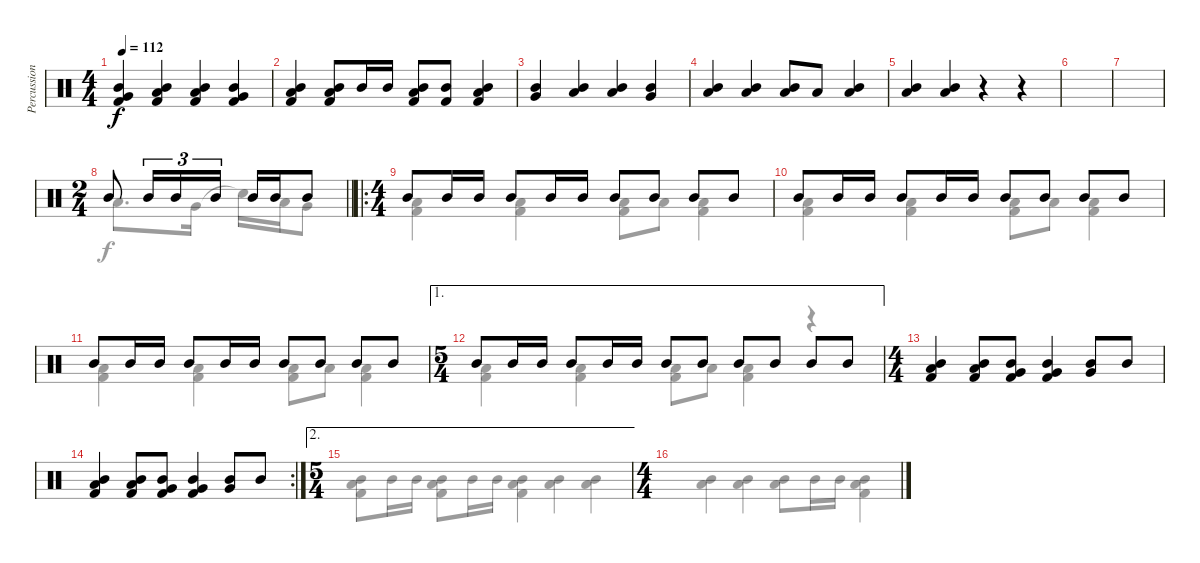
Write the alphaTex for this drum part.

\track ("Percussion" "Percussion") {instrument percussion}
\staff {score}
\articulation defaults
\voice
\ts (4 4)
\tempo 112
\clef neutral
\ks c
("Mid Tom (hit)" "Very Low Tom (hit)" "Kick (hit) 2").4{dy f} ("Mid Tom (hit)" "Low Floor Tom (hit)" "Kick (hit) 2").4 ("Mid Tom (hit)" "Low Floor Tom (hit)" "Kick (hit) 2").4 ("Mid Tom (hit)" "Very Low Tom (hit)" "Kick (hit) 2").4 |
("Mid Tom (hit)" "Low Tom (hit)" "Kick (hit) 2").4 ("Mid Tom (hit)" "Low Floor Tom (hit)" "Kick (hit) 2").8 "Mid Tom (hit)".16 "Mid Tom (hit)".16 ("Mid Tom (hit)" "Low Floor Tom (hit)" "Kick (hit) 2").8 ("Mid Tom (hit)" "Kick (hit) 2").8 ("Mid Tom (hit)" "Low Tom (hit)" "Kick (hit) 2").4 |
("Mid Tom (hit)" "Very Low Tom (hit)").4 ("Mid Tom (hit)" "Low Floor Tom (hit)").4 ("Mid Tom (hit)" "Low Floor Tom (hit)").4 ("Mid Tom (hit)" "Very Low Tom (hit)").4 |
("Mid Tom (hit)" "Low Tom (hit)").4 ("Mid Tom (hit)" "Low Floor Tom (hit)").4 ("Mid Tom (hit)" "Low Floor Tom (hit)").8 "Low Floor Tom (hit)".8 ("Mid Tom (hit)" "Low Tom (hit)").4 |
("Mid Tom (hit)" "Low Floor Tom (hit)").4 ("Mid Tom (hit)" "Low Floor Tom (hit)").4 r.4 r.4 |
|
|
\ts (2 4)
\barLineRight lightlight "Mid Tom (hit)".8 "Mid Tom (hit)".16{tu (3 2)} "Mid Tom (hit)".16{tu (3 2)} "Mid Tom (hit)".16{tu (3 2)} "Mid Tom (hit)".16 "Mid Tom (hit)".16 "Mid Tom (hit)".8
|
\ro
\ts (4 4)
"Mid Tom (hit)".8 "Mid Tom (hit)".16 "Mid Tom (hit)".16 "Mid Tom (hit)".8 "Mid Tom (hit)".16 "Mid Tom (hit)".16 "Mid Tom (hit)".8 "Mid Tom (hit)".8 "Mid Tom (hit)".8 "Mid Tom (hit)".8 |
"Mid Tom (hit)".8 "Mid Tom (hit)".16 "Mid Tom (hit)".16 "Mid Tom (hit)".8 "Mid Tom (hit)".16 "Mid Tom (hit)".16 "Mid Tom (hit)".8 "Mid Tom (hit)".8 "Mid Tom (hit)".8 "Mid Tom (hit)".8 |
"Mid Tom (hit)".8 "Mid Tom (hit)".16 "Mid Tom (hit)".16 "Mid Tom (hit)".8 "Mid Tom (hit)".16 "Mid Tom (hit)".16 "Mid Tom (hit)".8 "Mid Tom (hit)".8 "Mid Tom (hit)".8 "Mid Tom (hit)".8 |
\ae 1
\ts (5 4)
"Mid Tom (hit)".8 "Mid Tom (hit)".16 "Mid Tom (hit)".16 "Mid Tom (hit)".8 "Mid Tom (hit)".16 "Mid Tom (hit)".16 "Mid Tom (hit)".8 "Mid Tom (hit)".8 "Mid Tom (hit)".8 "Mid Tom (hit)".8 "Mid Tom (hit)".8 "Mid Tom (hit)".8 |
\ts (4 4)
("Mid Tom (hit)" "Low Floor Tom (hit)" "Kick (hit) 2").4 ("Mid Tom (hit)" "Low Floor Tom (hit)" "Kick (hit) 2").8 ("Mid Tom (hit)" "Very Low Tom (hit)" "Kick (hit) 2").8 ("Mid Tom (hit)" "Very Low Tom (hit)" "Kick (hit) 2").4 ("Mid Tom (hit)" "Very Low Tom (hit)").8 "Mid Tom (hit)".8 |
\rc 2
("Mid Tom (hit)" "Low Floor Tom (hit)" "Kick (hit) 2").4 ("Mid Tom (hit)" "Low Floor Tom (hit)" "Kick (hit) 2").8 ("Mid Tom (hit)" "Very Low Tom (hit)" "Kick (hit) 2").8 ("Mid Tom (hit)" "Very Low Tom (hit)" "Kick (hit) 2").4 ("Mid Tom (hit)" "Very Low Tom (hit)").8 "Mid Tom (hit)".8 |
\ae 2
\ts (5 4)
|
\ts (4 4)
\voice
\clef neutral
\ottava regular
\simile none
\ks c
|
|
|
|
|
|
|
\barLineRight lightlight "Low Tom (hit)".8{d} "Very Low Tom (hit)".16 "Snare (hit)"{t}.16 "Low Tom (hit)".16 "Very Low Tom (hit)".8
|
("Low Tom (hit)" "Kick (hit) 2").4 ("Low Floor Tom (hit)" "Kick (hit) 2").4 ("Low Floor Tom (hit)" "Kick (hit) 2").8 "Low Floor Tom (hit)".8 ("Low Tom (hit)" "Kick (hit) 2").4 |
("Low Tom (hit)" "Kick (hit) 2").4 ("Low Floor Tom (hit)" "Kick (hit) 2").4 ("Low Floor Tom (hit)" "Kick (hit) 2").8 "Low Floor Tom (hit)".8 ("Low Tom (hit)" "Kick (hit) 2").4 |
("Low Tom (hit)" "Kick (hit) 2").4 ("Low Floor Tom (hit)" "Kick (hit) 2").4 ("Low Floor Tom (hit)" "Kick (hit) 2").8 "Low Floor Tom (hit)".8 ("Low Tom (hit)" "Kick (hit) 2").4 |
("Low Tom (hit)" "Kick (hit) 2").4 ("Low Floor Tom (hit)" "Kick (hit) 2").4 ("Low Floor Tom (hit)" "Kick (hit) 2").8 "Low Floor Tom (hit)".8 ("Low Tom (hit)" "Kick (hit) 2").4 r.4 |
|
|
("Mid Tom (hit)" "Low Floor Tom (hit)" "Kick (hit) 2").8 "Mid Tom (hit)".16 "Mid Tom (hit)".16 ("Mid Tom (hit)" "Low Floor Tom (hit)" "Kick (hit) 2").8 "Mid Tom (hit)".16 "Mid Tom (hit)".16 ("Mid Tom (hit)" "Low Tom (hit)" "Kick (hit) 2").4 ("Mid Tom (hit)" "Low Tom (hit)").4 ("Mid Tom (hit)" "Low Tom (hit)").4 |
("Mid Tom (hit)" "Low Floor Tom (hit)").4 ("Mid Tom (hit)" "Low Floor Tom (hit)").4 ("Mid Tom (hit)" "Low Tom (hit)").8 "Mid Tom (hit)".16 "Mid Tom (hit)".16 ("Mid Tom (hit)" "Low Tom (hit)" "Kick (hit) 2").4
